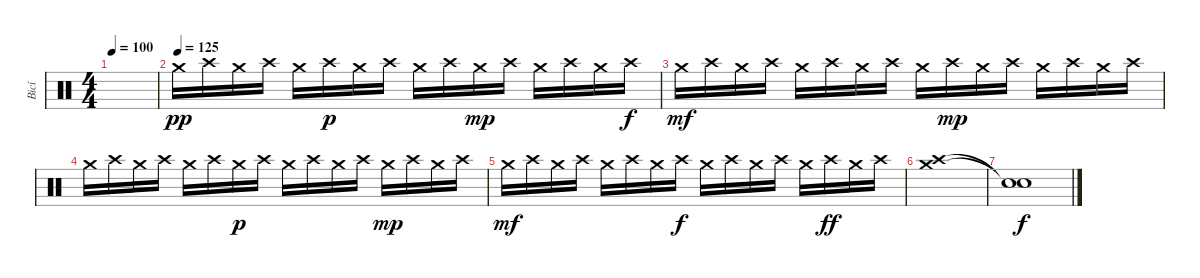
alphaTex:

\track ("Bicí" "Bicí") {instrument percussion}
\staff {score}
\articulation defaults
\ts (4 4)
\tempo 100
\clef neutral
\ks c
|
\tempo (125)
"Crash medium (hit)".16{dy pp} "Crash high (hit)".16 "Crash medium (hit)".16 "Crash high (hit)".16 "Crash medium (hit)".16 "Crash high (hit)".16{dy p} "Crash medium (hit)".16 "Crash high (hit)".16 "Crash medium (hit)".16 "Crash high (hit)".16 "Crash medium (hit)".16{dy mp} "Crash high (hit)".16 "Crash medium (hit)".16 "Crash high (hit)".16 "Crash medium (hit)".16 "Crash high (hit)".16{dy f} |
"Crash medium (hit)".16{dy mf} "Crash high (hit)".16 "Crash medium (hit)".16 "Crash high (hit)".16 "Crash medium (hit)".16 "Crash high (hit)".16 "Crash medium (hit)".16 "Crash high (hit)".16 "Crash medium (hit)".16 "Crash high (hit)".16{dy mp} "Crash medium (hit)".16 "Crash high (hit)".16 "Crash medium (hit)".16 "Crash high (hit)".16 "Crash medium (hit)".16 "Crash high (hit)".16 |
"Crash medium (hit)".16 "Crash high (hit)".16 "Crash medium (hit)".16 "Crash high (hit)".16 "Crash medium (hit)".16 "Crash high (hit)".16 "Crash medium (hit)".16{dy p} "Crash high (hit)".16 "Crash medium (hit)".16 "Crash high (hit)".16 "Crash medium (hit)".16 "Crash high (hit)".16 "Crash medium (hit)".16{dy mp} "Crash high (hit)".16 "Crash medium (hit)".16 "Crash high (hit)".16 |
"Crash medium (hit)".16{dy mf} "Crash high (hit)".16 "Crash medium (hit)".16 "Crash high (hit)".16 "Crash medium (hit)".16 "Crash high (hit)".16 "Crash medium (hit)".16 "Crash high (hit)".16{dy f} "Crash medium (hit)".16 "Crash high (hit)".16 "Crash medium (hit)".16 "Crash high (hit)".16 "Crash medium (hit)".16 "Crash high (hit)".16{dy ff} "Crash medium (hit)".16 "Crash high (hit)".16 |
("Crash medium (hit)" "Crash high (hit)").1 |
("Snare (hit)"{t} "Snare (hit)"{t}).1{dy f}
